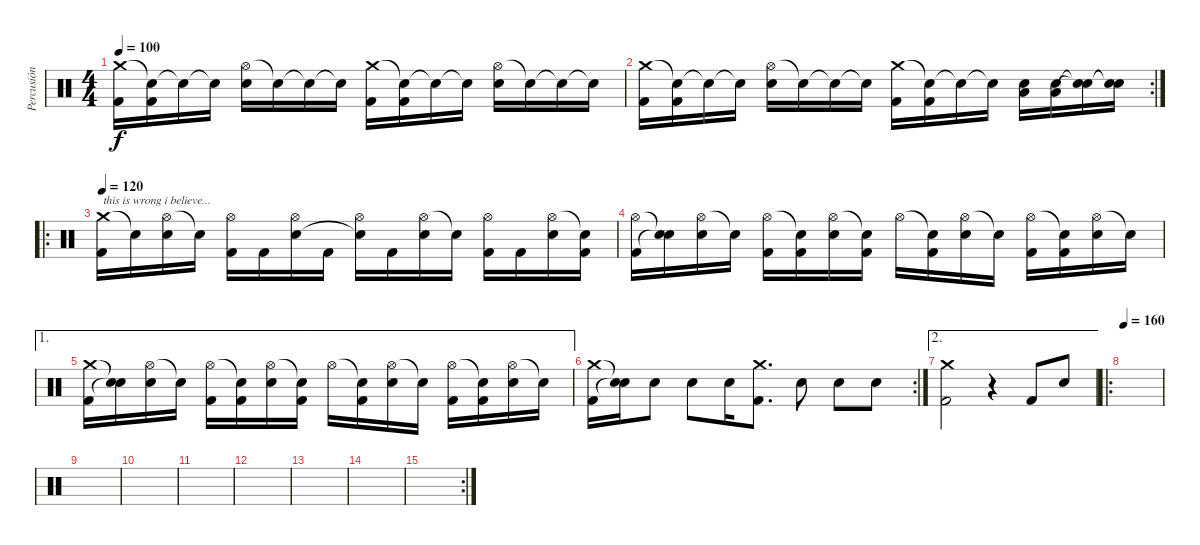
\track ("Percusión" "Percusión") {instrument percussion}
\staff {score}
\articulation defaults
\ts (4 4)
\tempo 100
\clef neutral
\ks c
("Crash medium (hit)" "Kick (hit) 2").16{dy f} ("Snare (hit)"{t} "Kick (hit) 2").16 "Snare (hit)"{t}.16 "Snare (hit)"{t}.16 ("Hi-Hat (open)" "Electric Snare (hit)").16 "Snare (hit)"{t}.16 "Snare (hit)"{t}.16 "Snare (hit)"{t}.16 ("Crash medium (hit)" "Kick (hit) 2").16 ("Snare (hit)"{t} "Kick (hit) 2").16 "Snare (hit)"{t}.16 "Snare (hit)"{t}.16 ("Hi-Hat (open)" "Electric Snare (hit)").16 "Snare (hit)"{t}.16 "Snare (hit)"{t}.16 "Snare (hit)"{t}.16 |
\rc 2
("Crash medium (hit)" "Kick (hit) 2").16 ("Snare (hit)"{t} "Kick (hit) 2").16 "Snare (hit)"{t}.16 "Snare (hit)"{t}.16 ("Hi-Hat (open)" "Electric Snare (hit)").16 "Snare (hit)"{t}.16 "Snare (hit)"{t}.16 "Snare (hit)"{t}.16 ("Crash medium (hit)" "Kick (hit) 2").16 ("Snare (hit)"{t} "Kick (hit) 2").16 "Snare (hit)"{t}.16 "Snare (hit)"{t}.16 ("Electric Snare (hit)" "Low Tom (hit)").16 ("Electric Snare (hit)" "Low Tom (hit)").16 ("Snare (hit)"{t} "Snare (hit)"{t}).16 ("Snare (hit)"{t} "Snare (hit)"{t}).16 |
\ro
\tempo 120
("Crash medium (hit)" "Kick (hit) 2").16{txt "this is wrong i believe..."} "Snare (hit)"{t}.16 ("Hi-Hat (open)" "Electric Snare (hit)").16 "Snare (hit)"{t}.16 ("Hi-Hat (open)" "Kick (hit) 2").16 "Kick (hit) 2".16 ("Hi-Hat (open)" "Electric Snare (hit)").16 "Kick (hit) 2".16 ("Hi-Hat (open)" "Snare (hit)"{t}).16 "Kick (hit) 2".16 ("Hi-Hat (open)" "Electric Snare (hit)").16 "Snare (hit)"{t}.16 ("Hi-Hat (open)" "Kick (hit) 2").16 "Kick (hit) 2".16 ("Hi-Hat (open)" "Electric Snare (hit)").16 ("Snare (hit)"{t} "Kick (hit) 2").16 |
("Hi-Hat (open)" "Kick (hit) 2").16 ("Snare (hit)"{t} "Snare (hit)"{t}).16 ("Hi-Hat (open)" "Electric Snare (hit)").16 "Snare (hit)"{t}.16 ("Hi-Hat (open)" "Kick (hit) 2").16 ("Snare (hit)"{t} "Kick (hit) 2").16 ("Hi-Hat (open)" "Electric Snare (hit)").16 ("Snare (hit)"{t} "Kick (hit) 2").16 "Hi-Hat (open)".16 ("Snare (hit)"{t} "Kick (hit) 2").16 ("Hi-Hat (open)" "Electric Snare (hit)").16 "Snare (hit)"{t}.16 ("Hi-Hat (open)" "Kick (hit) 2").16 ("Snare (hit)"{t} "Kick (hit) 2").16 ("Hi-Hat (open)" "Electric Snare (hit)").16 "Snare (hit)"{t}.16 |
\ae 1
("Crash medium (hit)" "Kick (hit) 2").16 ("Snare (hit)"{t} "Snare (hit)"{t}).16 ("Hi-Hat (open)" "Electric Snare (hit)").16 "Snare (hit)"{t}.16 ("Hi-Hat (open)" "Kick (hit) 2").16 ("Snare (hit)"{t} "Kick (hit) 2").16 ("Hi-Hat (open)" "Electric Snare (hit)").16 ("Snare (hit)"{t} "Kick (hit) 2").16 "Hi-Hat (open)".16 ("Snare (hit)"{t} "Kick (hit) 2").16 ("Hi-Hat (open)" "Electric Snare (hit)").16 "Snare (hit)"{t}.16 ("Hi-Hat (open)" "Kick (hit) 2").16 ("Snare (hit)"{t} "Kick (hit) 2").16 ("Hi-Hat (open)" "Electric Snare (hit)").16 "Snare (hit)"{t}.16 |
\rc 2
("Crash medium (hit)" "Kick (hit) 2").16 ("Snare (hit)"{t} "Snare (hit)"{t}).16 "Electric Snare (hit)".8 "Electric Snare (hit)".8 "Electric Snare (hit)".16 ("Crash medium (hit)" "Kick (hit) 2").8{d} "Electric Snare (hit)".8 "Electric Snare (hit)".8 "Electric Snare (hit)".8 |
\ae 2
("Crash medium (hit)" "Kick (hit) 2").2 r.4 "Kick (hit) 2".8 "Electric Snare (hit)".8 |
\ro
\tempo 160
|
|
|
|
|
|
|
\rc 2
